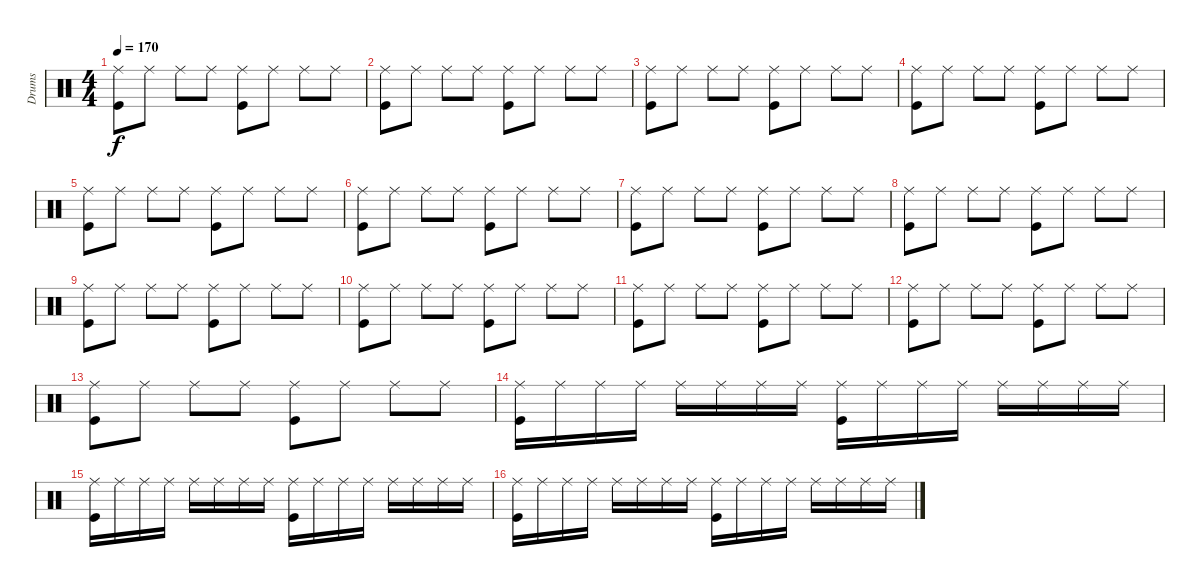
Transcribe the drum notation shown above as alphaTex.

\track ("Drums" "Drums") {instrument percussion}
\staff {score}
\articulation defaults
\ts (4 4)
\tempo 170
\clef neutral
\ks c
("Ride (middle)" "Kick (hit)").8{dy f} "Ride (middle)".8 "Ride (middle)".8 "Ride (middle)".8 ("Ride (middle)" "Kick (hit)").8 "Ride (middle)".8 "Ride (middle)".8 "Ride (middle)".8 |
("Ride (middle)" "Kick (hit)").8 "Ride (middle)".8 "Ride (middle)".8 "Ride (middle)".8 ("Ride (middle)" "Kick (hit)").8 "Ride (middle)".8 "Ride (middle)".8 "Ride (middle)".8 |
("Ride (middle)" "Kick (hit)").8 "Ride (middle)".8 "Ride (middle)".8 "Ride (middle)".8 ("Ride (middle)" "Kick (hit)").8 "Ride (middle)".8 "Ride (middle)".8 "Ride (middle)".8 |
("Ride (middle)" "Kick (hit)").8 "Ride (middle)".8 "Ride (middle)".8 "Ride (middle)".8 ("Ride (middle)" "Kick (hit)").8 "Ride (middle)".8 "Ride (middle)".8 "Ride (middle)".8 |
("Ride (middle)" "Kick (hit)").8 "Ride (middle)".8 "Ride (middle)".8 "Ride (middle)".8 ("Ride (middle)" "Kick (hit)").8 "Ride (middle)".8 "Ride (middle)".8 "Ride (middle)".8 |
("Ride (middle)" "Kick (hit)").8 "Ride (middle)".8 "Ride (middle)".8 "Ride (middle)".8 ("Ride (middle)" "Kick (hit)").8 "Ride (middle)".8 "Ride (middle)".8 "Ride (middle)".8 |
("Ride (middle)" "Kick (hit)").8 "Ride (middle)".8 "Ride (middle)".8 "Ride (middle)".8 ("Ride (middle)" "Kick (hit)").8 "Ride (middle)".8 "Ride (middle)".8 "Ride (middle)".8 |
("Ride (middle)" "Kick (hit)").8 "Ride (middle)".8 "Ride (middle)".8 "Ride (middle)".8 ("Ride (middle)" "Kick (hit)").8 "Ride (middle)".8 "Ride (middle)".8 "Ride (middle)".8 |
("Ride (middle)" "Kick (hit)").8 "Ride (middle)".8 "Ride (middle)".8 "Ride (middle)".8 ("Ride (middle)" "Kick (hit)").8 "Ride (middle)".8 "Ride (middle)".8 "Ride (middle)".8 |
("Ride (middle)" "Kick (hit)").8 "Ride (middle)".8 "Ride (middle)".8 "Ride (middle)".8 ("Ride (middle)" "Kick (hit)").8 "Ride (middle)".8 "Ride (middle)".8 "Ride (middle)".8 |
("Ride (middle)" "Kick (hit)").8 "Ride (middle)".8 "Ride (middle)".8 "Ride (middle)".8 ("Ride (middle)" "Kick (hit)").8 "Ride (middle)".8 "Ride (middle)".8 "Ride (middle)".8 |
("Ride (middle)" "Kick (hit)").8 "Ride (middle)".8 "Ride (middle)".8 "Ride (middle)".8 ("Ride (middle)" "Kick (hit)").8 "Ride (middle)".8 "Ride (middle)".8 "Ride (middle)".8 |
("Ride (middle)" "Kick (hit)").8 "Ride (middle)".8 "Ride (middle)".8 "Ride (middle)".8 ("Ride (middle)" "Kick (hit)").8 "Ride (middle)".8 "Ride (middle)".8 "Ride (middle)".8 |
("Ride (middle)" "Kick (hit)").16 "Ride (middle)".16 "Ride (middle)".16 "Ride (middle)".16 "Ride (middle)".16 "Ride (middle)".16 "Ride (middle)".16 "Ride (middle)".16 ("Ride (middle)" "Kick (hit)").16 "Ride (middle)".16 "Ride (middle)".16 "Ride (middle)".16 "Ride (middle)".16 "Ride (middle)".16 "Ride (middle)".16 "Ride (middle)".16 |
("Ride (middle)" "Kick (hit)").16 "Ride (middle)".16 "Ride (middle)".16 "Ride (middle)".16 "Ride (middle)".16 "Ride (middle)".16 "Ride (middle)".16 "Ride (middle)".16 ("Ride (middle)" "Kick (hit)").16 "Ride (middle)".16 "Ride (middle)".16 "Ride (middle)".16 "Ride (middle)".16 "Ride (middle)".16 "Ride (middle)".16 "Ride (middle)".16 |
("Ride (middle)" "Kick (hit)").16 "Ride (middle)".16 "Ride (middle)".16 "Ride (middle)".16 "Ride (middle)".16 "Ride (middle)".16 "Ride (middle)".16 "Ride (middle)".16 ("Ride (middle)" "Kick (hit)").16 "Ride (middle)".16 "Ride (middle)".16 "Ride (middle)".16 "Ride (middle)".16 "Ride (middle)".16 "Ride (middle)".16 "Ride (middle)".16
